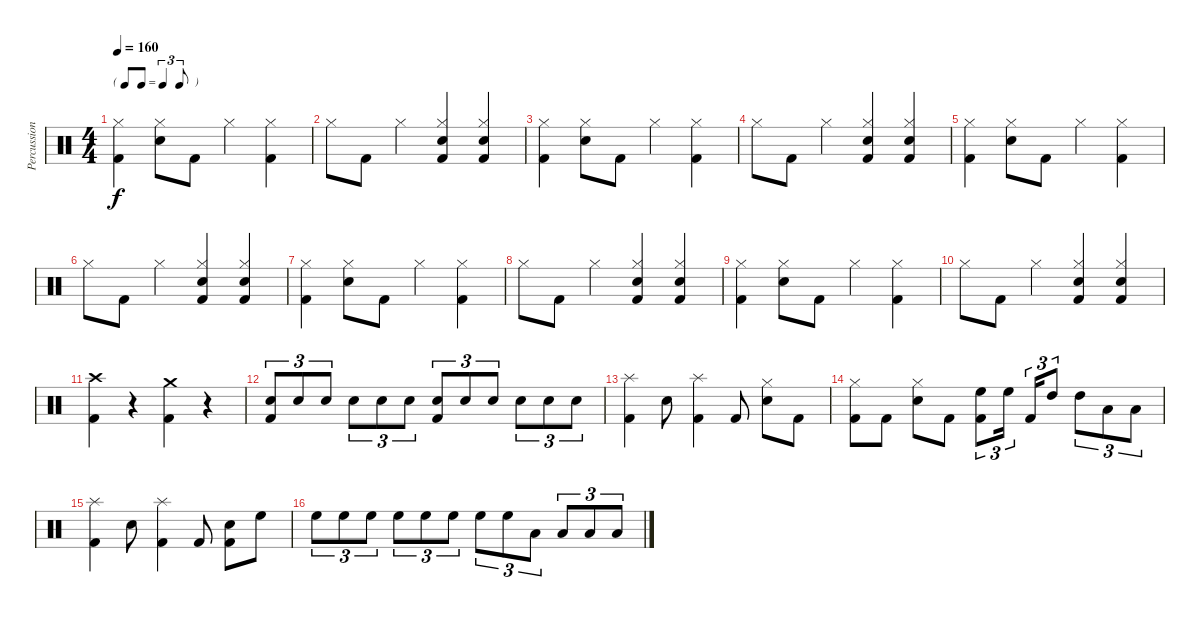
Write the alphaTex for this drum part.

\track ("Percussion" "Percussion") {instrument percussion}
\staff {score}
\articulation defaults
\ts (4 4)
\tf triplet8th
\tempo 160
\clef neutral
\ks c
("Kick (hit) 2" "Hi-Hat (closed)").4{dy f} ("Snare (hit) 2" "Hi-Hat (closed)").8 "Kick (hit) 2".8 "Hi-Hat (closed)".4 ("Kick (hit) 2" "Hi-Hat (closed)").4 |
"Hi-Hat (closed)".8 "Kick (hit) 2".8 "Hi-Hat (closed)".4 ("Kick (hit) 2" "Snare (hit) 2" "Hi-Hat (closed)").4 ("Kick (hit) 2" "Snare (hit) 2" "Hi-Hat (closed)").4 |
("Kick (hit) 2" "Hi-Hat (closed)").4 ("Snare (hit) 2" "Hi-Hat (closed)").8 "Kick (hit) 2".8 "Hi-Hat (closed)".4 ("Kick (hit) 2" "Hi-Hat (closed)").4 |
"Hi-Hat (closed)".8 "Kick (hit) 2".8 "Hi-Hat (closed)".4 ("Kick (hit) 2" "Snare (hit) 2" "Hi-Hat (closed)").4 ("Kick (hit) 2" "Snare (hit) 2" "Hi-Hat (closed)").4 |
("Kick (hit) 2" "Hi-Hat (closed)").4 ("Snare (hit) 2" "Hi-Hat (closed)").8 "Kick (hit) 2".8 "Hi-Hat (closed)".4 ("Kick (hit) 2" "Hi-Hat (closed)").4 |
"Hi-Hat (closed)".8 "Kick (hit) 2".8 "Hi-Hat (closed)".4 ("Kick (hit) 2" "Snare (hit) 2" "Hi-Hat (closed)").4 ("Kick (hit) 2" "Snare (hit) 2" "Hi-Hat (closed)").4 |
("Kick (hit) 2" "Hi-Hat (closed)").4 ("Snare (hit) 2" "Hi-Hat (closed)").8 "Kick (hit) 2".8 "Hi-Hat (closed)".4 ("Kick (hit) 2" "Hi-Hat (closed)").4 |
"Hi-Hat (closed)".8 "Kick (hit) 2".8 "Hi-Hat (closed)".4 ("Kick (hit) 2" "Snare (hit) 2" "Hi-Hat (closed)").4 ("Kick (hit) 2" "Snare (hit) 2" "Hi-Hat (closed)").4 |
("Kick (hit) 2" "Hi-Hat (closed)").4 ("Snare (hit) 2" "Hi-Hat (closed)").8 "Kick (hit) 2".8 "Hi-Hat (closed)".4 ("Kick (hit) 2" "Hi-Hat (closed)").4 |
"Hi-Hat (closed)".8 "Kick (hit) 2".8 "Hi-Hat (closed)".4 ("Kick (hit) 2" "Snare (hit) 2" "Hi-Hat (closed)").4 ("Kick (hit) 2" "Snare (hit) 2" "Hi-Hat (closed)").4 |
("Kick (hit) 2" "Crash high (hit)").4 r.4 ("Kick (hit) 2" "Crash medium (hit)").4 r.4 |
("Snare (hit) 2" "Kick (hit) 2").8{tu (3 2)} "Snare (hit) 2".8{tu (3 2)} "Snare (hit) 2".8{tu (3 2)} "Snare (hit) 2".8{tu (3 2)} "Snare (hit) 2".8{tu (3 2)} "Snare (hit) 2".8{tu (3 2)} ("Snare (hit) 2" "Kick (hit) 2").8{tu (3 2)} "Snare (hit) 2".8{tu (3 2)} "Snare (hit) 2".8{tu (3 2)} "Snare (hit) 2".8{tu (3 2)} "Snare (hit) 2".8{tu (3 2)} "Snare (hit) 2".8{tu (3 2)} |
("Kick (hit) 2" "Splash (hit)").4 "Snare (hit) 2".8 ("Kick (hit) 2" "Splash (hit)").4 "Kick (hit) 2".8 ("Snare (hit) 2" "Hi-Hat (closed)").8 "Kick (hit) 2".8 |
("Kick (hit) 2" "Hi-Hat (closed)").8 "Kick (hit) 2".8 ("Snare (hit) 2" "Hi-Hat (closed)").8 "Kick (hit) 2".8 ("Kick (hit) 2" "High Floor Tom (hit)").8{tu (3 2)} "High Floor Tom (hit)".16{tu (3 2)} "Kick (hit) 2".16{tu (3 2)} "High Tom (hit)".8{tu (3 2)} "High Tom (hit)".8{tu (3 2)} "Low Tom (hit)".8{tu (3 2)} "Low Tom (hit)".8{tu (3 2)} |
("Kick (hit) 2" "Splash (hit)").4 "Snare (hit) 2".8 ("Kick (hit) 2" "Splash (hit)").4 "Kick (hit) 2".8 ("Kick (hit) 2" "Snare (hit) 2").8 "High Floor Tom (hit)".8 |
"High Floor Tom (hit)".8{tu (3 2)} "High Floor Tom (hit)".8{tu (3 2)} "High Floor Tom (hit)".8{tu (3 2)} "High Floor Tom (hit)".8{tu (3 2)} "High Floor Tom (hit)".8{tu (3 2)} "High Floor Tom (hit)".8{tu (3 2)} "High Floor Tom (hit)".8{tu (3 2)} "High Floor Tom (hit)".8{tu (3 2)} "Low Tom (hit)".8{tu (3 2)} "Low Tom (hit)".8{tu (3 2)} "Low Tom (hit)".8{tu (3 2)} "Low Tom (hit)".8{tu (3 2)}
